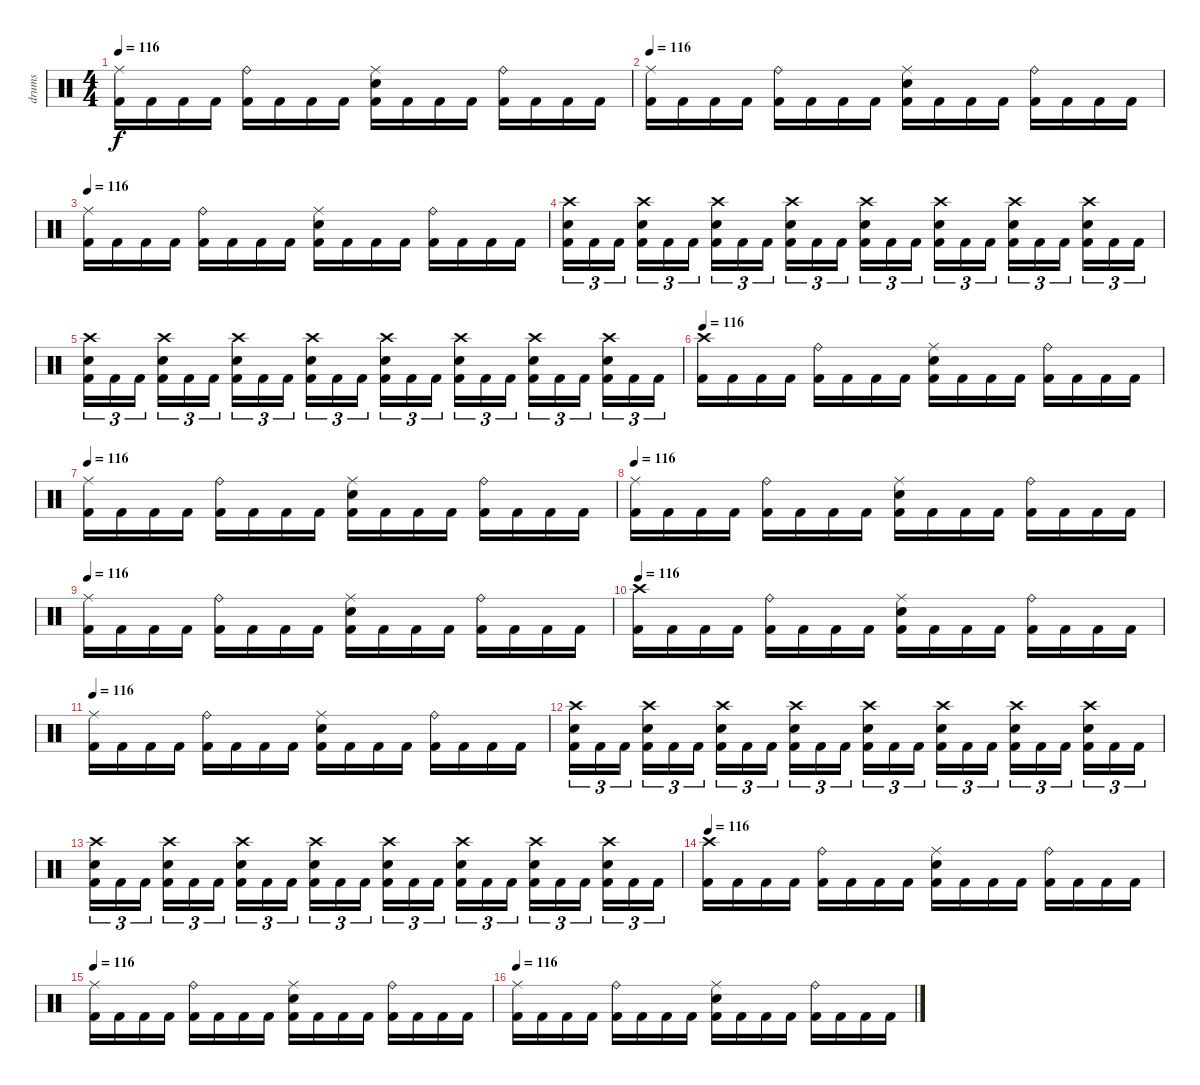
\track ("drums" "drums") {instrument percussion}
\staff {score}
\articulation defaults
\ts (4 4)
\tempo 116
\clef neutral
\ks c
("Ride (middle)" "Kick (hit) 2").16{dy f} "Kick (hit) 2".16 "Kick (hit) 2".16 "Kick (hit) 2".16 ("Ride (bell)" "Kick (hit) 2").16 "Kick (hit) 2".16 "Kick (hit) 2".16 "Kick (hit) 2".16 ("Ride (middle)" "Snare (hit) 2" "Kick (hit) 2").16 "Kick (hit) 2".16 "Kick (hit) 2".16 "Kick (hit) 2".16 ("Ride (bell)" "Kick (hit) 2").16 "Kick (hit) 2".16 "Kick (hit) 2".16 "Kick (hit) 2".16 |
\tempo 116
("Ride (middle)" "Kick (hit) 2").16 "Kick (hit) 2".16 "Kick (hit) 2".16 "Kick (hit) 2".16 ("Ride (bell)" "Kick (hit) 2").16 "Kick (hit) 2".16 "Kick (hit) 2".16 "Kick (hit) 2".16 ("Ride (middle)" "Snare (hit) 2" "Kick (hit) 2").16 "Kick (hit) 2".16 "Kick (hit) 2".16 "Kick (hit) 2".16 ("Ride (bell)" "Kick (hit) 2").16 "Kick (hit) 2".16 "Kick (hit) 2".16 "Kick (hit) 2".16 |
\tempo 116
("Ride (middle)" "Kick (hit) 2").16 "Kick (hit) 2".16 "Kick (hit) 2".16 "Kick (hit) 2".16 ("Ride (bell)" "Kick (hit) 2").16 "Kick (hit) 2".16 "Kick (hit) 2".16 "Kick (hit) 2".16 ("Ride (middle)" "Snare (hit) 2" "Kick (hit) 2").16 "Kick (hit) 2".16 "Kick (hit) 2".16 "Kick (hit) 2".16 ("Ride (bell)" "Kick (hit) 2").16 "Kick (hit) 2".16 "Kick (hit) 2".16 "Kick (hit) 2".16 |
("Crash high (hit)" "Snare (hit) 2" "Kick (hit) 2").16{tu (3 2)} "Kick (hit) 2".16{tu (3 2)} "Kick (hit) 2".16{tu (3 2) beam splitsecondary} ("Crash high (hit)" "Snare (hit) 2" "Kick (hit) 2").16{tu (3 2)} "Kick (hit) 2".16{tu (3 2)} "Kick (hit) 2".16{tu (3 2)} ("Crash high (hit)" "Snare (hit) 2" "Kick (hit) 2").16{tu (3 2)} "Kick (hit) 2".16{tu (3 2)} "Kick (hit) 2".16{tu (3 2) beam splitsecondary} ("Crash high (hit)" "Snare (hit) 2" "Kick (hit) 2").16{tu (3 2)} "Kick (hit) 2".16{tu (3 2)} "Kick (hit) 2".16{tu (3 2)} ("Crash high (hit)" "Snare (hit) 2" "Kick (hit) 2").16{tu (3 2)} "Kick (hit) 2".16{tu (3 2)} "Kick (hit) 2".16{tu (3 2) beam splitsecondary} ("Crash high (hit)" "Snare (hit) 2" "Kick (hit) 2").16{tu (3 2)} "Kick (hit) 2".16{tu (3 2)} "Kick (hit) 2".16{tu (3 2)} ("Crash high (hit)" "Snare (hit) 2" "Kick (hit) 2").16{tu (3 2)} "Kick (hit) 2".16{tu (3 2)} "Kick (hit) 2".16{tu (3 2) beam splitsecondary} ("Crash high (hit)" "Snare (hit) 2" "Kick (hit) 2").16{tu (3 2)} "Kick (hit) 2".16{tu (3 2)} "Kick (hit) 2".16{tu (3 2)} |
("Crash high (hit)" "Snare (hit) 2" "Kick (hit) 2").16{tu (3 2)} "Kick (hit) 2".16{tu (3 2)} "Kick (hit) 2".16{tu (3 2) beam splitsecondary} ("Crash high (hit)" "Snare (hit) 2" "Kick (hit) 2").16{tu (3 2)} "Kick (hit) 2".16{tu (3 2)} "Kick (hit) 2".16{tu (3 2)} ("Crash high (hit)" "Snare (hit) 2" "Kick (hit) 2").16{tu (3 2)} "Kick (hit) 2".16{tu (3 2)} "Kick (hit) 2".16{tu (3 2) beam splitsecondary} ("Crash high (hit)" "Snare (hit) 2" "Kick (hit) 2").16{tu (3 2)} "Kick (hit) 2".16{tu (3 2)} "Kick (hit) 2".16{tu (3 2)} ("Crash high (hit)" "Snare (hit) 2" "Kick (hit) 2").16{tu (3 2)} "Kick (hit) 2".16{tu (3 2)} "Kick (hit) 2".16{tu (3 2) beam splitsecondary} ("Crash high (hit)" "Snare (hit) 2" "Kick (hit) 2").16{tu (3 2)} "Kick (hit) 2".16{tu (3 2)} "Kick (hit) 2".16{tu (3 2)} ("Crash high (hit)" "Snare (hit) 2" "Kick (hit) 2").16{tu (3 2)} "Kick (hit) 2".16{tu (3 2)} "Kick (hit) 2".16{tu (3 2) beam splitsecondary} ("Crash high (hit)" "Snare (hit) 2" "Kick (hit) 2").16{tu (3 2)} "Kick (hit) 2".16{tu (3 2)} "Kick (hit) 2".16{tu (3 2)} |
\tempo 116
("Crash high (hit)" "Kick (hit) 2").16 "Kick (hit) 2".16 "Kick (hit) 2".16 "Kick (hit) 2".16 ("Ride (bell)" "Kick (hit) 2").16 "Kick (hit) 2".16 "Kick (hit) 2".16 "Kick (hit) 2".16 ("Ride (middle)" "Snare (hit) 2" "Kick (hit) 2").16 "Kick (hit) 2".16 "Kick (hit) 2".16 "Kick (hit) 2".16 ("Ride (bell)" "Kick (hit) 2").16 "Kick (hit) 2".16 "Kick (hit) 2".16 "Kick (hit) 2".16 |
\tempo 116
("Ride (middle)" "Kick (hit) 2").16 "Kick (hit) 2".16 "Kick (hit) 2".16 "Kick (hit) 2".16 ("Ride (bell)" "Kick (hit) 2").16 "Kick (hit) 2".16 "Kick (hit) 2".16 "Kick (hit) 2".16 ("Ride (middle)" "Snare (hit) 2" "Kick (hit) 2").16 "Kick (hit) 2".16 "Kick (hit) 2".16 "Kick (hit) 2".16 ("Ride (bell)" "Kick (hit) 2").16 "Kick (hit) 2".16 "Kick (hit) 2".16 "Kick (hit) 2".16 |
\tempo 116
("Ride (middle)" "Kick (hit) 2").16 "Kick (hit) 2".16 "Kick (hit) 2".16 "Kick (hit) 2".16 ("Ride (bell)" "Kick (hit) 2").16 "Kick (hit) 2".16 "Kick (hit) 2".16 "Kick (hit) 2".16 ("Ride (middle)" "Snare (hit) 2" "Kick (hit) 2").16 "Kick (hit) 2".16 "Kick (hit) 2".16 "Kick (hit) 2".16 ("Ride (bell)" "Kick (hit) 2").16 "Kick (hit) 2".16 "Kick (hit) 2".16 "Kick (hit) 2".16 |
\tempo 116
("Ride (middle)" "Kick (hit) 2").16 "Kick (hit) 2".16 "Kick (hit) 2".16 "Kick (hit) 2".16 ("Ride (bell)" "Kick (hit) 2").16 "Kick (hit) 2".16 "Kick (hit) 2".16 "Kick (hit) 2".16 ("Ride (middle)" "Snare (hit) 2" "Kick (hit) 2").16 "Kick (hit) 2".16 "Kick (hit) 2".16 "Kick (hit) 2".16 ("Ride (bell)" "Kick (hit) 2").16 "Kick (hit) 2".16 "Kick (hit) 2".16 "Kick (hit) 2".16 |
\tempo 116
("Crash high (hit)" "Kick (hit) 2").16 "Kick (hit) 2".16 "Kick (hit) 2".16 "Kick (hit) 2".16 ("Ride (bell)" "Kick (hit) 2").16 "Kick (hit) 2".16 "Kick (hit) 2".16 "Kick (hit) 2".16 ("Ride (middle)" "Snare (hit) 2" "Kick (hit) 2").16 "Kick (hit) 2".16 "Kick (hit) 2".16 "Kick (hit) 2".16 ("Ride (bell)" "Kick (hit) 2").16 "Kick (hit) 2".16 "Kick (hit) 2".16 "Kick (hit) 2".16 |
\tempo 116
("Ride (middle)" "Kick (hit) 2").16 "Kick (hit) 2".16 "Kick (hit) 2".16 "Kick (hit) 2".16 ("Ride (bell)" "Kick (hit) 2").16 "Kick (hit) 2".16 "Kick (hit) 2".16 "Kick (hit) 2".16 ("Ride (middle)" "Snare (hit) 2" "Kick (hit) 2").16 "Kick (hit) 2".16 "Kick (hit) 2".16 "Kick (hit) 2".16 ("Ride (bell)" "Kick (hit) 2").16 "Kick (hit) 2".16 "Kick (hit) 2".16 "Kick (hit) 2".16 |
("Crash high (hit)" "Snare (hit) 2" "Kick (hit) 2").16{tu (3 2)} "Kick (hit) 2".16{tu (3 2)} "Kick (hit) 2".16{tu (3 2) beam splitsecondary} ("Crash high (hit)" "Snare (hit) 2" "Kick (hit) 2").16{tu (3 2)} "Kick (hit) 2".16{tu (3 2)} "Kick (hit) 2".16{tu (3 2)} ("Crash high (hit)" "Snare (hit) 2" "Kick (hit) 2").16{tu (3 2)} "Kick (hit) 2".16{tu (3 2)} "Kick (hit) 2".16{tu (3 2) beam splitsecondary} ("Crash high (hit)" "Snare (hit) 2" "Kick (hit) 2").16{tu (3 2)} "Kick (hit) 2".16{tu (3 2)} "Kick (hit) 2".16{tu (3 2)} ("Crash high (hit)" "Snare (hit) 2" "Kick (hit) 2").16{tu (3 2)} "Kick (hit) 2".16{tu (3 2)} "Kick (hit) 2".16{tu (3 2) beam splitsecondary} ("Crash high (hit)" "Snare (hit) 2" "Kick (hit) 2").16{tu (3 2)} "Kick (hit) 2".16{tu (3 2)} "Kick (hit) 2".16{tu (3 2)} ("Crash high (hit)" "Snare (hit) 2" "Kick (hit) 2").16{tu (3 2)} "Kick (hit) 2".16{tu (3 2)} "Kick (hit) 2".16{tu (3 2) beam splitsecondary} ("Crash high (hit)" "Snare (hit) 2" "Kick (hit) 2").16{tu (3 2)} "Kick (hit) 2".16{tu (3 2)} "Kick (hit) 2".16{tu (3 2)} |
("Crash high (hit)" "Snare (hit) 2" "Kick (hit) 2").16{tu (3 2)} "Kick (hit) 2".16{tu (3 2)} "Kick (hit) 2".16{tu (3 2) beam splitsecondary} ("Crash high (hit)" "Snare (hit) 2" "Kick (hit) 2").16{tu (3 2)} "Kick (hit) 2".16{tu (3 2)} "Kick (hit) 2".16{tu (3 2)} ("Crash high (hit)" "Snare (hit) 2" "Kick (hit) 2").16{tu (3 2)} "Kick (hit) 2".16{tu (3 2)} "Kick (hit) 2".16{tu (3 2) beam splitsecondary} ("Crash high (hit)" "Snare (hit) 2" "Kick (hit) 2").16{tu (3 2)} "Kick (hit) 2".16{tu (3 2)} "Kick (hit) 2".16{tu (3 2)} ("Crash high (hit)" "Snare (hit) 2" "Kick (hit) 2").16{tu (3 2)} "Kick (hit) 2".16{tu (3 2)} "Kick (hit) 2".16{tu (3 2) beam splitsecondary} ("Crash high (hit)" "Snare (hit) 2" "Kick (hit) 2").16{tu (3 2)} "Kick (hit) 2".16{tu (3 2)} "Kick (hit) 2".16{tu (3 2)} ("Crash high (hit)" "Snare (hit) 2" "Kick (hit) 2").16{tu (3 2)} "Kick (hit) 2".16{tu (3 2)} "Kick (hit) 2".16{tu (3 2) beam splitsecondary} ("Crash high (hit)" "Snare (hit) 2" "Kick (hit) 2").16{tu (3 2)} "Kick (hit) 2".16{tu (3 2)} "Kick (hit) 2".16{tu (3 2)} |
\tempo 116
("Crash high (hit)" "Kick (hit) 2").16 "Kick (hit) 2".16 "Kick (hit) 2".16 "Kick (hit) 2".16 ("Ride (bell)" "Kick (hit) 2").16 "Kick (hit) 2".16 "Kick (hit) 2".16 "Kick (hit) 2".16 ("Ride (middle)" "Snare (hit) 2" "Kick (hit) 2").16 "Kick (hit) 2".16 "Kick (hit) 2".16 "Kick (hit) 2".16 ("Ride (bell)" "Kick (hit) 2").16 "Kick (hit) 2".16 "Kick (hit) 2".16 "Kick (hit) 2".16 |
\tempo 116
("Ride (middle)" "Kick (hit) 2").16 "Kick (hit) 2".16 "Kick (hit) 2".16 "Kick (hit) 2".16 ("Ride (bell)" "Kick (hit) 2").16 "Kick (hit) 2".16 "Kick (hit) 2".16 "Kick (hit) 2".16 ("Ride (middle)" "Snare (hit) 2" "Kick (hit) 2").16 "Kick (hit) 2".16 "Kick (hit) 2".16 "Kick (hit) 2".16 ("Ride (bell)" "Kick (hit) 2").16 "Kick (hit) 2".16 "Kick (hit) 2".16 "Kick (hit) 2".16 |
\tempo 116
("Ride (middle)" "Kick (hit) 2").16 "Kick (hit) 2".16 "Kick (hit) 2".16 "Kick (hit) 2".16 ("Ride (bell)" "Kick (hit) 2").16 "Kick (hit) 2".16 "Kick (hit) 2".16 "Kick (hit) 2".16 ("Ride (middle)" "Snare (hit) 2" "Kick (hit) 2").16 "Kick (hit) 2".16 "Kick (hit) 2".16 "Kick (hit) 2".16 ("Ride (bell)" "Kick (hit) 2").16 "Kick (hit) 2".16 "Kick (hit) 2".16 "Kick (hit) 2".16
